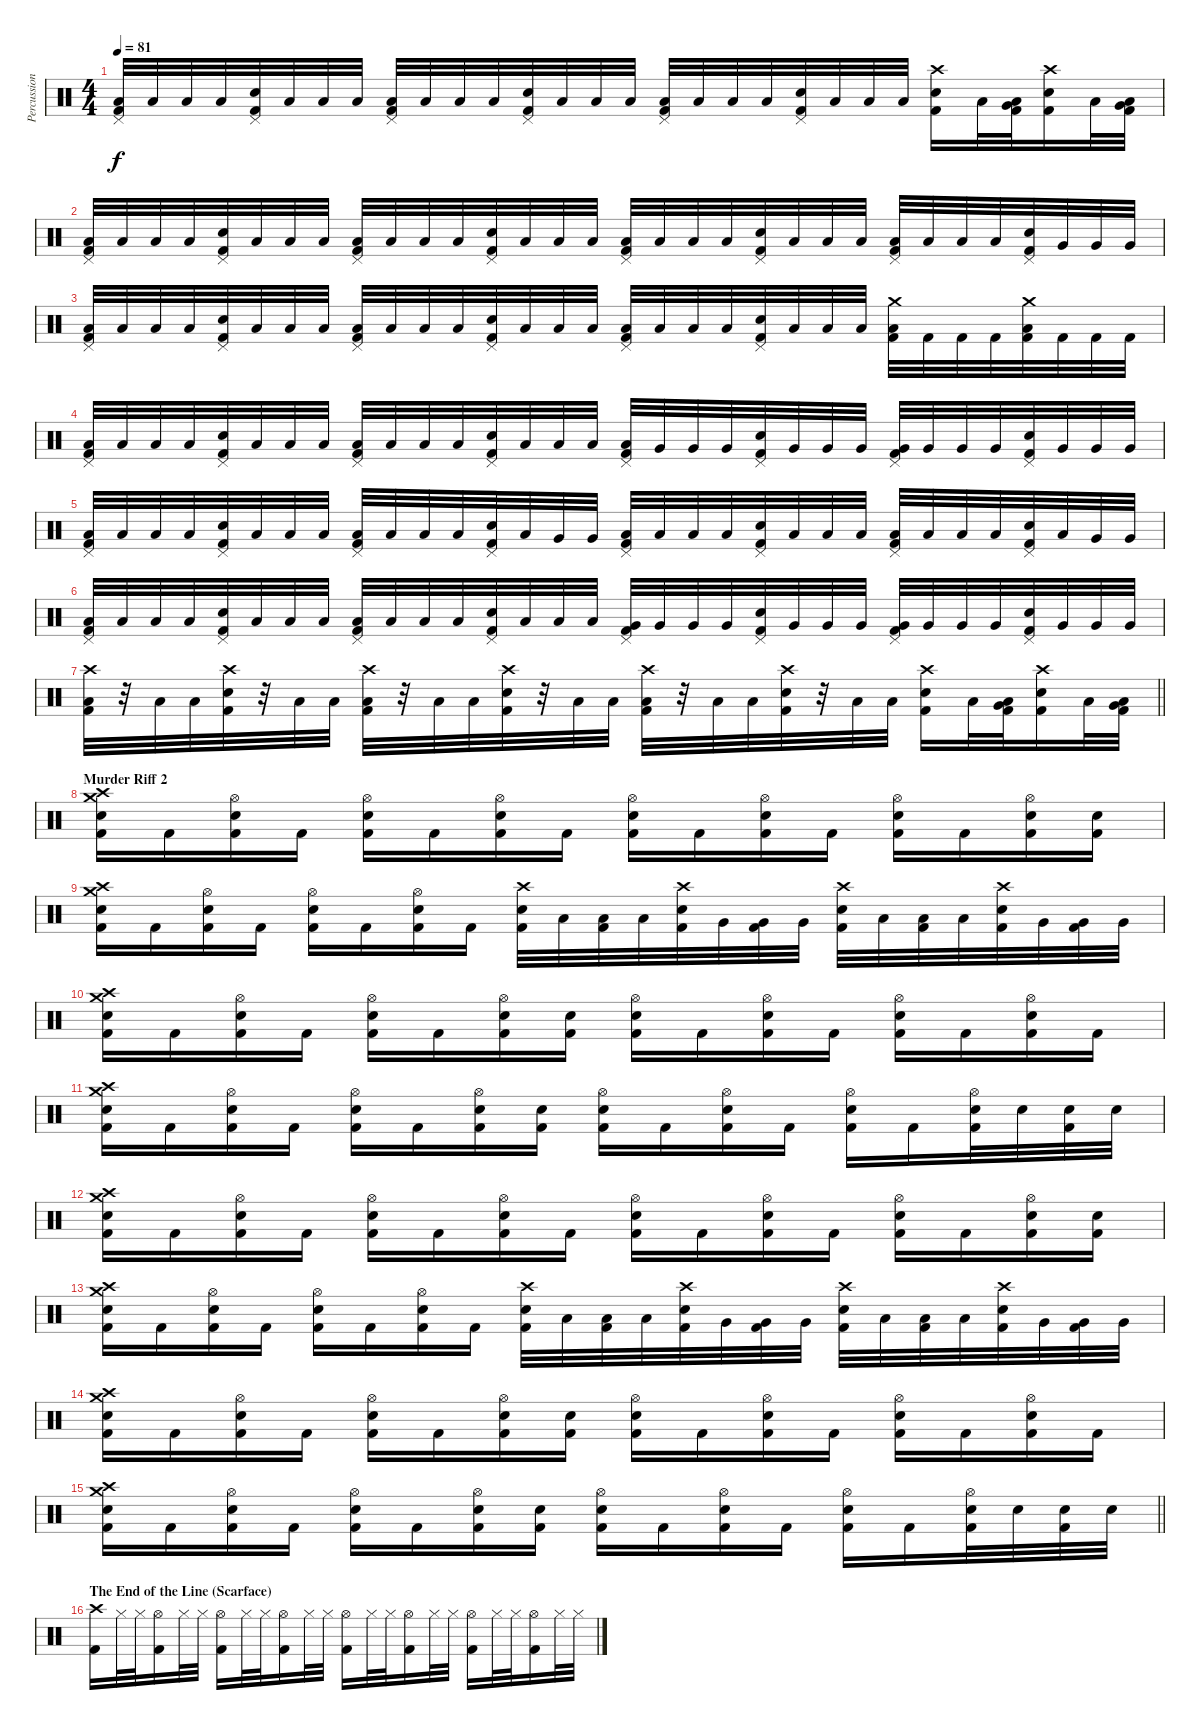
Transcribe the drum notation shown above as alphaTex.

\track ("Percussion" "Percussion") {instrument percussion}
\staff {score}
\articulation defaults
\ts (4 4)
\tempo 81
\clef neutral
\ks c
("Pedal Hi-Hat (hit)" "Low Floor Tom (hit)" "Kick (hit) 2").32{dy f} "Low Floor Tom (hit)".32 "Low Floor Tom (hit)".32 "Low Floor Tom (hit)".32 ("Pedal Hi-Hat (hit)" "Electric Snare (hit)" "Kick (hit) 2").32 "Low Floor Tom (hit)".32 "Low Floor Tom (hit)".32 "Low Floor Tom (hit)".32 ("Pedal Hi-Hat (hit)" "Low Floor Tom (hit)" "Kick (hit) 2").32 "Low Floor Tom (hit)".32 "Low Floor Tom (hit)".32 "Low Floor Tom (hit)".32 ("Pedal Hi-Hat (hit)" "Electric Snare (hit)" "Kick (hit) 2").32 "Low Floor Tom (hit)".32 "Low Floor Tom (hit)".32 "Low Floor Tom (hit)".32 ("Pedal Hi-Hat (hit)" "Low Floor Tom (hit)" "Kick (hit) 2").32 "Low Floor Tom (hit)".32 "Low Floor Tom (hit)".32 "Low Floor Tom (hit)".32 ("Pedal Hi-Hat (hit)" "Electric Snare (hit)" "Kick (hit) 2").32 "Low Floor Tom (hit)".32 "Low Floor Tom (hit)".32 "Low Floor Tom (hit)".32 ("Crash high (hit)" "Electric Snare (hit)" "Kick (hit) 2").16 "Low Floor Tom (hit)".32 ("Very Low Tom (hit)" "Low Floor Tom (hit)" "Kick (hit) 2").32 ("Crash high (hit)" "Electric Snare (hit)" "Kick (hit) 2").16 "Low Floor Tom (hit)".32 ("Very Low Tom (hit)" "Low Floor Tom (hit)" "Kick (hit) 2").32 |
("Pedal Hi-Hat (hit)" "Low Floor Tom (hit)" "Kick (hit) 2").32 "Low Floor Tom (hit)".32 "Low Floor Tom (hit)".32 "Low Floor Tom (hit)".32 ("Pedal Hi-Hat (hit)" "Electric Snare (hit)" "Kick (hit) 2").32 "Low Floor Tom (hit)".32 "Low Floor Tom (hit)".32 "Low Floor Tom (hit)".32 ("Pedal Hi-Hat (hit)" "Low Floor Tom (hit)" "Kick (hit) 2").32 "Low Floor Tom (hit)".32 "Low Floor Tom (hit)".32 "Low Floor Tom (hit)".32 ("Pedal Hi-Hat (hit)" "Electric Snare (hit)" "Kick (hit) 2").32 "Low Floor Tom (hit)".32 "Low Floor Tom (hit)".32 "Low Floor Tom (hit)".32 ("Pedal Hi-Hat (hit)" "Low Floor Tom (hit)" "Kick (hit) 2").32 "Low Floor Tom (hit)".32 "Low Floor Tom (hit)".32 "Low Floor Tom (hit)".32 ("Pedal Hi-Hat (hit)" "Electric Snare (hit)" "Kick (hit) 2").32 "Low Floor Tom (hit)".32 "Low Floor Tom (hit)".32 "Low Floor Tom (hit)".32 ("Pedal Hi-Hat (hit)" "Low Floor Tom (hit)" "Kick (hit) 2").32 "Low Floor Tom (hit)".32 "Low Floor Tom (hit)".32 "Low Floor Tom (hit)".32 ("Pedal Hi-Hat (hit)" "Electric Snare (hit)" "Kick (hit) 2").32 "Very Low Tom (hit)".32 "Very Low Tom (hit)".32 "Very Low Tom (hit)".32 |
("Pedal Hi-Hat (hit)" "Low Floor Tom (hit)" "Kick (hit) 2").32 "Low Floor Tom (hit)".32 "Low Floor Tom (hit)".32 "Low Floor Tom (hit)".32 ("Pedal Hi-Hat (hit)" "Electric Snare (hit)" "Kick (hit) 2").32 "Low Floor Tom (hit)".32 "Low Floor Tom (hit)".32 "Low Floor Tom (hit)".32 ("Pedal Hi-Hat (hit)" "Low Floor Tom (hit)" "Kick (hit) 2").32 "Low Floor Tom (hit)".32 "Low Floor Tom (hit)".32 "Low Floor Tom (hit)".32 ("Pedal Hi-Hat (hit)" "Electric Snare (hit)" "Kick (hit) 2").32 "Low Floor Tom (hit)".32 "Low Floor Tom (hit)".32 "Low Floor Tom (hit)".32 ("Pedal Hi-Hat (hit)" "Low Floor Tom (hit)" "Kick (hit) 2").32 "Low Floor Tom (hit)".32 "Low Floor Tom (hit)".32 "Low Floor Tom (hit)".32 ("Pedal Hi-Hat (hit)" "Electric Snare (hit)" "Kick (hit) 2").32 "Low Floor Tom (hit)".32 "Low Floor Tom (hit)".32 "Low Floor Tom (hit)".32 ("Crash medium (hit)" "Low Floor Tom (hit)" "Kick (hit) 2").32 "Kick (hit) 2".32 "Kick (hit) 2".32 "Kick (hit) 2".32 ("Crash medium (hit)" "Low Floor Tom (hit)" "Kick (hit) 2").32 "Kick (hit) 2".32 "Kick (hit) 2".32 "Kick (hit) 2".32 |
("Pedal Hi-Hat (hit)" "Low Tom (hit)" "Kick (hit) 2").32 "Low Tom (hit)".32 "Low Tom (hit)".32 "Low Tom (hit)".32 ("Pedal Hi-Hat (hit)" "Electric Snare (hit)" "Kick (hit) 2").32 "Low Tom (hit)".32 "Low Tom (hit)".32 "Low Tom (hit)".32 ("Pedal Hi-Hat (hit)" "Low Tom (hit)" "Kick (hit) 2").32 "Low Tom (hit)".32 "Low Tom (hit)".32 "Low Tom (hit)".32 ("Pedal Hi-Hat (hit)" "Electric Snare (hit)" "Kick (hit) 2").32 "Low Tom (hit)".32 "Low Tom (hit)".32 "Low Tom (hit)".32 ("Pedal Hi-Hat (hit)" "Low Tom (hit)" "Kick (hit) 2").32 "Very Low Tom (hit)".32 "Very Low Tom (hit)".32 "Very Low Tom (hit)".32 ("Pedal Hi-Hat (hit)" "Electric Snare (hit)" "Kick (hit) 2").32 "Very Low Tom (hit)".32 "Very Low Tom (hit)".32 "Very Low Tom (hit)".32 ("Pedal Hi-Hat (hit)" "Very Low Tom (hit)" "Kick (hit) 2").32 "Very Low Tom (hit)".32 "Very Low Tom (hit)".32 "Very Low Tom (hit)".32 ("Pedal Hi-Hat (hit)" "Electric Snare (hit)" "Kick (hit) 2").32 "Very Low Tom (hit)".32 "Very Low Tom (hit)".32 "Very Low Tom (hit)".32 |
("Pedal Hi-Hat (hit)" "Low Floor Tom (hit)" "Kick (hit) 2").32 "Low Floor Tom (hit)".32 "Low Floor Tom (hit)".32 "Low Floor Tom (hit)".32 ("Pedal Hi-Hat (hit)" "Electric Snare (hit)" "Kick (hit) 2").32 "Low Floor Tom (hit)".32 "Low Floor Tom (hit)".32 "Low Floor Tom (hit)".32 ("Pedal Hi-Hat (hit)" "Low Floor Tom (hit)" "Kick (hit) 2").32 "Low Floor Tom (hit)".32 "Low Floor Tom (hit)".32 "Low Floor Tom (hit)".32 ("Pedal Hi-Hat (hit)" "Electric Snare (hit)" "Kick (hit) 2").32 "Low Floor Tom (hit)".32 "Very Low Tom (hit)".32 "Very Low Tom (hit)".32 ("Pedal Hi-Hat (hit)" "Low Floor Tom (hit)" "Kick (hit) 2").32 "Low Floor Tom (hit)".32 "Low Floor Tom (hit)".32 "Low Floor Tom (hit)".32 ("Pedal Hi-Hat (hit)" "Electric Snare (hit)" "Kick (hit) 2").32 "Low Floor Tom (hit)".32 "Low Floor Tom (hit)".32 "Low Floor Tom (hit)".32 ("Pedal Hi-Hat (hit)" "Low Floor Tom (hit)" "Kick (hit) 2").32 "Low Floor Tom (hit)".32 "Low Floor Tom (hit)".32 "Low Floor Tom (hit)".32 ("Pedal Hi-Hat (hit)" "Electric Snare (hit)" "Kick (hit) 2").32 "Low Floor Tom (hit)".32 "Very Low Tom (hit)".32 "Very Low Tom (hit)".32 |
("Pedal Hi-Hat (hit)" "Low Tom (hit)" "Kick (hit) 2").32 "Low Tom (hit)".32 "Low Tom (hit)".32 "Low Tom (hit)".32 ("Pedal Hi-Hat (hit)" "Electric Snare (hit)" "Kick (hit) 2").32 "Low Tom (hit)".32 "Low Tom (hit)".32 "Low Tom (hit)".32 ("Pedal Hi-Hat (hit)" "Low Tom (hit)" "Kick (hit) 2").32 "Low Tom (hit)".32 "Low Tom (hit)".32 "Low Tom (hit)".32 ("Pedal Hi-Hat (hit)" "Electric Snare (hit)" "Kick (hit) 2").32 "Low Tom (hit)".32 "Low Tom (hit)".32 "Low Tom (hit)".32 ("Pedal Hi-Hat (hit)" "Very Low Tom (hit)" "Kick (hit) 2").32 "Very Low Tom (hit)".32 "Very Low Tom (hit)".32 "Very Low Tom (hit)".32 ("Pedal Hi-Hat (hit)" "Electric Snare (hit)" "Kick (hit) 2").32 "Very Low Tom (hit)".32 "Very Low Tom (hit)".32 "Very Low Tom (hit)".32 ("Pedal Hi-Hat (hit)" "Very Low Tom (hit)" "Kick (hit) 2").32 "Very Low Tom (hit)".32 "Very Low Tom (hit)".32 "Very Low Tom (hit)".32 ("Pedal Hi-Hat (hit)" "Electric Snare (hit)" "Kick (hit) 2").32 "Very Low Tom (hit)".32 "Very Low Tom (hit)".32 "Very Low Tom (hit)".32 |
\barLineRight lightlight
("Crash high (hit)" "Low Floor Tom (hit)" "Kick (hit) 2").32 r.32 "Low Floor Tom (hit)".32 "Low Floor Tom (hit)".32 ("Crash high (hit)" "Electric Snare (hit)" "Kick (hit) 2").32 r.32 "Low Floor Tom (hit)".32 "Low Floor Tom (hit)".32 ("Crash high (hit)" "Low Floor Tom (hit)" "Kick (hit) 2").32 r.32 "Low Floor Tom (hit)".32 "Low Floor Tom (hit)".32 ("Crash high (hit)" "Electric Snare (hit)" "Kick (hit) 2").32 r.32 "Low Floor Tom (hit)".32 "Low Floor Tom (hit)".32 ("Crash high (hit)" "Low Floor Tom (hit)" "Kick (hit) 2").32 r.32 "Low Floor Tom (hit)".32 "Low Floor Tom (hit)".32 ("Crash high (hit)" "Electric Snare (hit)" "Kick (hit) 2").32 r.32 "Low Floor Tom (hit)".32 "Low Floor Tom (hit)".32 ("Crash high (hit)" "Electric Snare (hit)" "Kick (hit) 2").16 "Low Floor Tom (hit)".32 ("Very Low Tom (hit)" "Low Floor Tom (hit)" "Kick (hit) 2").32 ("Crash high (hit)" "Electric Snare (hit)" "Kick (hit) 2").16 "Low Floor Tom (hit)".32 ("Very Low Tom (hit)" "Low Floor Tom (hit)" "Kick (hit) 2").32 |
\section ("" "Murder Riff 2")
("Crash high (hit)" "Crash medium (hit)" "Electric Snare (hit)" "Kick (hit) 2").16 "Kick (hit) 2".16 ("Hi-Hat (open)" "Electric Snare (hit)" "Kick (hit) 2").16 "Kick (hit) 2".16 ("Hi-Hat (open)" "Electric Snare (hit)" "Kick (hit) 2").16 "Kick (hit) 2".16 ("Hi-Hat (open)" "Electric Snare (hit)" "Kick (hit) 2").16 "Kick (hit) 2".16 ("Hi-Hat (open)" "Electric Snare (hit)" "Kick (hit) 2").16 "Kick (hit) 2".16 ("Hi-Hat (open)" "Electric Snare (hit)" "Kick (hit) 2").16 "Kick (hit) 2".16 ("Hi-Hat (open)" "Electric Snare (hit)" "Kick (hit) 2").16 "Kick (hit) 2".16 ("Hi-Hat (open)" "Electric Snare (hit)" "Kick (hit) 2").16 ("Electric Snare (hit)" "Kick (hit) 2").16 |
("Crash high (hit)" "Crash medium (hit)" "Electric Snare (hit)" "Kick (hit) 2").16 "Kick (hit) 2".16 ("Hi-Hat (open)" "Electric Snare (hit)" "Kick (hit) 2").16 "Kick (hit) 2".16 ("Hi-Hat (open)" "Electric Snare (hit)" "Kick (hit) 2").16 "Kick (hit) 2".16 ("Hi-Hat (open)" "Electric Snare (hit)" "Kick (hit) 2").16 "Kick (hit) 2".16 ("Crash high (hit)" "Electric Snare (hit)" "Kick (hit) 2").32 "Low Tom (hit)".32 ("Low Tom (hit)" "Kick (hit) 2").32 "Low Tom (hit)".32 ("Crash high (hit)" "Electric Snare (hit)" "Kick (hit) 2").32 "Very Low Tom (hit)".32 ("Very Low Tom (hit)" "Kick (hit) 2").32 "Very Low Tom (hit)".32 ("Crash high (hit)" "Electric Snare (hit)" "Kick (hit) 2").32 "Low Floor Tom (hit)".32 ("Low Floor Tom (hit)" "Kick (hit) 2").32 "Low Floor Tom (hit)".32 ("Crash high (hit)" "Electric Snare (hit)" "Kick (hit) 2").32 "Very Low Tom (hit)".32 ("Very Low Tom (hit)" "Kick (hit) 2").32 "Very Low Tom (hit)".32 |
("Crash high (hit)" "Crash medium (hit)" "Electric Snare (hit)" "Kick (hit) 2").16 "Kick (hit) 2".16 ("Hi-Hat (open)" "Electric Snare (hit)" "Kick (hit) 2").16 "Kick (hit) 2".16 ("Hi-Hat (open)" "Electric Snare (hit)" "Kick (hit) 2").16 "Kick (hit) 2".16 ("Hi-Hat (open)" "Electric Snare (hit)" "Kick (hit) 2").16 ("Electric Snare (hit)" "Kick (hit) 2").16 ("Hi-Hat (open)" "Electric Snare (hit)" "Kick (hit) 2").16 "Kick (hit) 2".16 ("Hi-Hat (open)" "Electric Snare (hit)" "Kick (hit) 2").16 "Kick (hit) 2".16 ("Hi-Hat (open)" "Electric Snare (hit)" "Kick (hit) 2").16 "Kick (hit) 2".16 ("Hi-Hat (open)" "Electric Snare (hit)" "Kick (hit) 2").16 "Kick (hit) 2".16 |
("Crash high (hit)" "Crash medium (hit)" "Electric Snare (hit)" "Kick (hit) 2").16 "Kick (hit) 2".16 ("Hi-Hat (open)" "Electric Snare (hit)" "Kick (hit) 2").16 "Kick (hit) 2".16 ("Hi-Hat (open)" "Electric Snare (hit)" "Kick (hit) 2").16 "Kick (hit) 2".16 ("Hi-Hat (open)" "Electric Snare (hit)" "Kick (hit) 2").16 ("Electric Snare (hit)" "Kick (hit) 2").16 ("Hi-Hat (open)" "Electric Snare (hit)" "Kick (hit) 2").16 "Kick (hit) 2".16 ("Hi-Hat (open)" "Electric Snare (hit)" "Kick (hit) 2").16 "Kick (hit) 2".16 ("Hi-Hat (open)" "Electric Snare (hit)" "Kick (hit) 2").16 "Kick (hit) 2".16 ("Hi-Hat (open)" "Electric Snare (hit)" "Kick (hit) 2").32 "Electric Snare (hit)".32 ("Electric Snare (hit)" "Kick (hit) 2").32 "Electric Snare (hit)".32 |
("Crash high (hit)" "Crash medium (hit)" "Electric Snare (hit)" "Kick (hit) 2").16 "Kick (hit) 2".16 ("Hi-Hat (open)" "Electric Snare (hit)" "Kick (hit) 2").16 "Kick (hit) 2".16 ("Hi-Hat (open)" "Electric Snare (hit)" "Kick (hit) 2").16 "Kick (hit) 2".16 ("Hi-Hat (open)" "Electric Snare (hit)" "Kick (hit) 2").16 "Kick (hit) 2".16 ("Hi-Hat (open)" "Electric Snare (hit)" "Kick (hit) 2").16 "Kick (hit) 2".16 ("Hi-Hat (open)" "Electric Snare (hit)" "Kick (hit) 2").16 "Kick (hit) 2".16 ("Hi-Hat (open)" "Electric Snare (hit)" "Kick (hit) 2").16 "Kick (hit) 2".16 ("Hi-Hat (open)" "Electric Snare (hit)" "Kick (hit) 2").16 ("Electric Snare (hit)" "Kick (hit) 2").16 |
("Crash high (hit)" "Crash medium (hit)" "Electric Snare (hit)" "Kick (hit) 2").16 "Kick (hit) 2".16 ("Hi-Hat (open)" "Electric Snare (hit)" "Kick (hit) 2").16 "Kick (hit) 2".16 ("Hi-Hat (open)" "Electric Snare (hit)" "Kick (hit) 2").16 "Kick (hit) 2".16 ("Hi-Hat (open)" "Electric Snare (hit)" "Kick (hit) 2").16 "Kick (hit) 2".16 ("Crash high (hit)" "Electric Snare (hit)" "Kick (hit) 2").32 "Low Tom (hit)".32 ("Low Tom (hit)" "Kick (hit) 2").32 "Low Tom (hit)".32 ("Crash high (hit)" "Electric Snare (hit)" "Kick (hit) 2").32 "Very Low Tom (hit)".32 ("Very Low Tom (hit)" "Kick (hit) 2").32 "Very Low Tom (hit)".32 ("Crash high (hit)" "Electric Snare (hit)" "Kick (hit) 2").32 "Low Floor Tom (hit)".32 ("Low Floor Tom (hit)" "Kick (hit) 2").32 "Low Floor Tom (hit)".32 ("Crash high (hit)" "Electric Snare (hit)" "Kick (hit) 2").32 "Very Low Tom (hit)".32 ("Very Low Tom (hit)" "Kick (hit) 2").32 "Very Low Tom (hit)".32 |
("Crash high (hit)" "Crash medium (hit)" "Electric Snare (hit)" "Kick (hit) 2").16 "Kick (hit) 2".16 ("Hi-Hat (open)" "Electric Snare (hit)" "Kick (hit) 2").16 "Kick (hit) 2".16 ("Hi-Hat (open)" "Electric Snare (hit)" "Kick (hit) 2").16 "Kick (hit) 2".16 ("Hi-Hat (open)" "Electric Snare (hit)" "Kick (hit) 2").16 ("Electric Snare (hit)" "Kick (hit) 2").16 ("Hi-Hat (open)" "Electric Snare (hit)" "Kick (hit) 2").16 "Kick (hit) 2".16 ("Hi-Hat (open)" "Electric Snare (hit)" "Kick (hit) 2").16 "Kick (hit) 2".16 ("Hi-Hat (open)" "Electric Snare (hit)" "Kick (hit) 2").16 "Kick (hit) 2".16 ("Hi-Hat (open)" "Electric Snare (hit)" "Kick (hit) 2").16 "Kick (hit) 2".16 |
\barLineRight lightlight
("Crash high (hit)" "Crash medium (hit)" "Electric Snare (hit)" "Kick (hit) 2").16 "Kick (hit) 2".16 ("Hi-Hat (open)" "Electric Snare (hit)" "Kick (hit) 2").16 "Kick (hit) 2".16 ("Hi-Hat (open)" "Electric Snare (hit)" "Kick (hit) 2").16 "Kick (hit) 2".16 ("Hi-Hat (open)" "Electric Snare (hit)" "Kick (hit) 2").16 ("Electric Snare (hit)" "Kick (hit) 2").16 ("Hi-Hat (open)" "Electric Snare (hit)" "Kick (hit) 2").16 "Kick (hit) 2".16 ("Hi-Hat (open)" "Electric Snare (hit)" "Kick (hit) 2").16 "Kick (hit) 2".16 ("Hi-Hat (open)" "Electric Snare (hit)" "Kick (hit) 2").16 "Kick (hit) 2".16 ("Hi-Hat (open)" "Electric Snare (hit)" "Kick (hit) 2").32 "Electric Snare (hit)".32 ("Electric Snare (hit)" "Kick (hit) 2").32 "Electric Snare (hit)".32 |
\section ("" "The End of the Line (Scarface)")
("Crash high (hit)" "Kick (hit) 2").16 "Hi-Hat (closed)".32 "Hi-Hat (closed)".32 ("Hi-Hat (open)" "Kick (hit) 2").16 "Hi-Hat (closed)".32 "Hi-Hat (closed)".32 ("Hi-Hat (open)" "Kick (hit) 2").16 "Hi-Hat (closed)".32 "Hi-Hat (closed)".32 ("Hi-Hat (open)" "Kick (hit) 2").16 "Hi-Hat (closed)".32 "Hi-Hat (closed)".32 ("Hi-Hat (open)" "Kick (hit) 2").16 "Hi-Hat (closed)".32 "Hi-Hat (closed)".32 ("Hi-Hat (open)" "Kick (hit) 2").16 "Hi-Hat (closed)".32 "Hi-Hat (closed)".32 ("Hi-Hat (open)" "Kick (hit) 2").16 "Hi-Hat (closed)".32 "Hi-Hat (closed)".32 ("Hi-Hat (open)" "Kick (hit) 2").16 "Hi-Hat (closed)".32 "Hi-Hat (closed)".32
